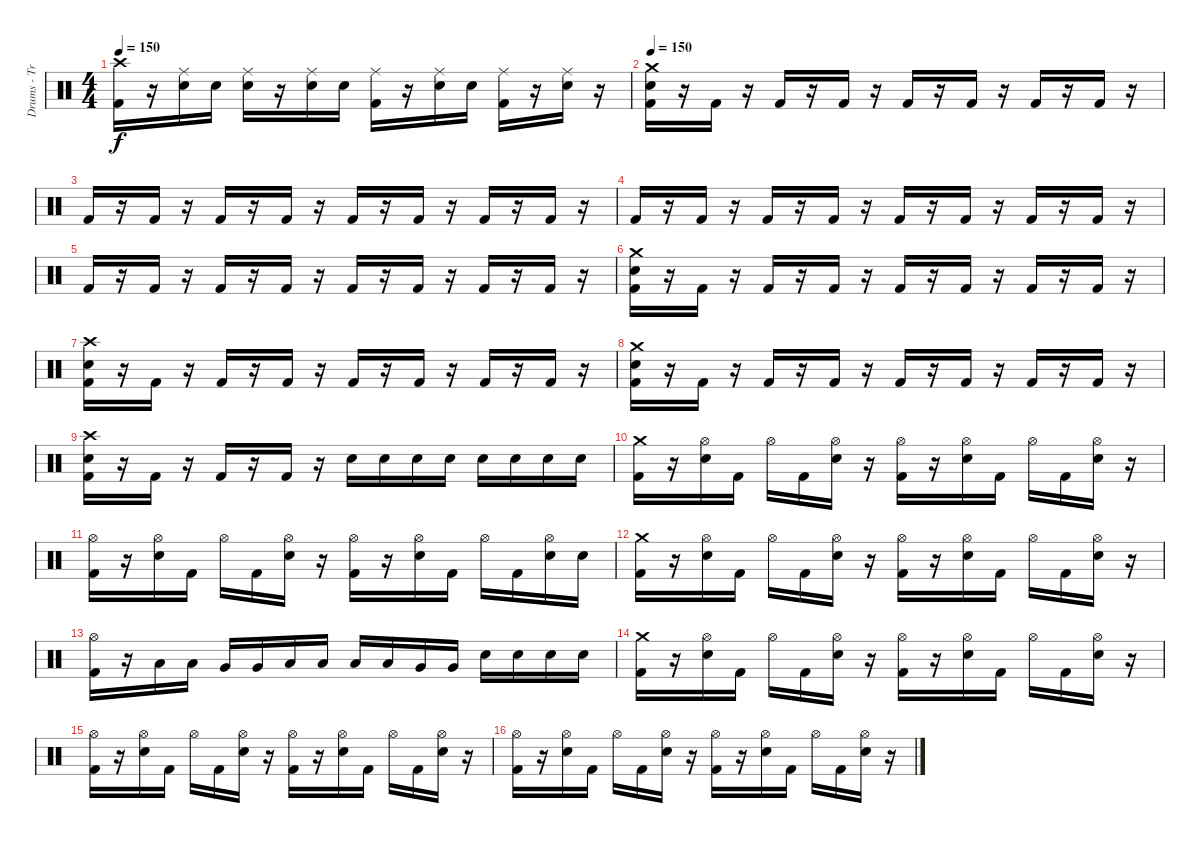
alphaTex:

\track ("Drums - Travis Barker" "Drums - Tr") {instrument percussion}
\staff {score}
\articulation defaults
\ts (4 4)
\tempo 150
\clef neutral
\ks c
("Crash high (hit)" "Kick (hit) 2").16{dy f} r.16 ("Ride (middle)" "Electric Snare (hit)").16 "Electric Snare (hit)".16 ("Hand Clap (hit)" "Ride (middle)").16 r.16 ("Ride (middle)" "Electric Snare (hit)").16 "Electric Snare (hit)".16 ("Ride (middle)" "Kick (hit) 2").16 r.16 ("Ride (middle)" "Electric Snare (hit)").16 "Electric Snare (hit)".16 ("Ride (middle)" "Kick (hit) 2").16 r.16 ("Ride (middle)" "Electric Snare (hit)").16 r.16 |
\tempo 150
("Crash medium (hit)" "Electric Snare (hit)" "Kick (hit) 2").16 r.16 "Kick (hit) 2".16 r.16 "Kick (hit) 2".16 r.16 "Kick (hit) 2".16 r.16 "Kick (hit) 2".16 r.16 "Kick (hit) 2".16 r.16 "Kick (hit) 2".16 r.16 "Kick (hit) 2".16 r.16 |
"Kick (hit) 2".16 r.16 "Kick (hit) 2".16 r.16 "Kick (hit) 2".16 r.16 "Kick (hit) 2".16 r.16 "Kick (hit) 2".16 r.16 "Kick (hit) 2".16 r.16 "Kick (hit) 2".16 r.16 "Kick (hit) 2".16 r.16 |
"Kick (hit) 2".16 r.16 "Kick (hit) 2".16 r.16 "Kick (hit) 2".16 r.16 "Kick (hit) 2".16 r.16 "Kick (hit) 2".16 r.16 "Kick (hit) 2".16 r.16 "Kick (hit) 2".16 r.16 "Kick (hit) 2".16 r.16 |
"Kick (hit) 2".16 r.16 "Kick (hit) 2".16 r.16 "Kick (hit) 2".16 r.16 "Kick (hit) 2".16 r.16 "Kick (hit) 2".16 r.16 "Kick (hit) 2".16 r.16 "Kick (hit) 2".16 r.16 "Kick (hit) 2".16 r.16 |
("Crash medium (hit)" "Electric Snare (hit)" "Kick (hit) 2").16 r.16 "Kick (hit) 2".16 r.16 "Kick (hit) 2".16 r.16 "Kick (hit) 2".16 r.16 "Kick (hit) 2".16 r.16 "Kick (hit) 2".16 r.16 "Kick (hit) 2".16 r.16 "Kick (hit) 2".16 r.16 |
("Crash high (hit)" "Electric Snare (hit)" "Kick (hit) 2").16 r.16 "Kick (hit) 2".16 r.16 "Kick (hit) 2".16 r.16 "Kick (hit) 2".16 r.16 "Kick (hit) 2".16 r.16 "Kick (hit) 2".16 r.16 "Kick (hit) 2".16 r.16 "Kick (hit) 2".16 r.16 |
("Crash medium (hit)" "Electric Snare (hit)" "Kick (hit) 2").16 r.16 "Kick (hit) 2".16 r.16 "Kick (hit) 2".16 r.16 "Kick (hit) 2".16 r.16 "Kick (hit) 2".16 r.16 "Kick (hit) 2".16 r.16 "Kick (hit) 2".16 r.16 "Kick (hit) 2".16 r.16 |
("Crash high (hit)" "Electric Snare (hit)" "Kick (hit) 2").16 r.16 "Kick (hit) 2".16 r.16 "Kick (hit) 2".16 r.16 "Kick (hit) 2".16 r.16 "Electric Snare (hit)".16 "Electric Snare (hit)".16 "Electric Snare (hit)".16 "Electric Snare (hit)".16 "Electric Snare (hit)".16 "Electric Snare (hit)".16 "Electric Snare (hit)".16 "Electric Snare (hit)".16 |
("Crash medium (hit)" "Kick (hit) 2").16 r.16 ("Hi-Hat (open)" "Electric Snare (hit)").16 "Kick (hit) 2".16 "Hi-Hat (open)".16 "Kick (hit) 2".16 ("Hi-Hat (open)" "Electric Snare (hit)").16 r.16 ("Hi-Hat (open)" "Kick (hit) 2").16 r.16 ("Hi-Hat (open)" "Electric Snare (hit)").16 "Kick (hit) 2".16 "Hi-Hat (open)".16 "Kick (hit) 2".16 ("Hi-Hat (open)" "Electric Snare (hit)").16 r.16 |
("Hi-Hat (open)" "Kick (hit) 2").16 r.16 ("Hi-Hat (open)" "Electric Snare (hit)").16 "Kick (hit) 2".16 "Hi-Hat (open)".16 "Kick (hit) 2".16 ("Hi-Hat (open)" "Electric Snare (hit)").16 r.16 ("Hi-Hat (open)" "Kick (hit) 2").16 r.16 ("Hi-Hat (open)" "Electric Snare (hit)").16 "Kick (hit) 2".16 "Hi-Hat (open)".16 "Kick (hit) 2".16 ("Hi-Hat (open)" "Electric Snare (hit)").16 "Electric Snare (hit)".16 |
("Crash medium (hit)" "Kick (hit) 2").16 r.16 ("Hi-Hat (open)" "Electric Snare (hit)").16 "Kick (hit) 2".16 "Hi-Hat (open)".16 "Kick (hit) 2".16 ("Hi-Hat (open)" "Electric Snare (hit)").16 r.16 ("Hi-Hat (open)" "Kick (hit) 2").16 r.16 ("Hi-Hat (open)" "Electric Snare (hit)").16 "Kick (hit) 2".16 "Hi-Hat (open)".16 "Kick (hit) 2".16 ("Hi-Hat (open)" "Electric Snare (hit)").16 r.16 |
("Hi-Hat (open)" "Kick (hit) 2").16 r.16 "Low Tom (hit)".16 "Low Tom (hit)".16 "Very Low Tom (hit)".16 "Very Low Tom (hit)".16 "Low Floor Tom (hit)".16 "Low Floor Tom (hit)".16 "Low Tom (hit)".16 "Low Tom (hit)".16 "Very Low Tom (hit)".16 "Very Low Tom (hit)".16 "Electric Snare (hit)".16 "Electric Snare (hit)".16 "Electric Snare (hit)".16 "Electric Snare (hit)".16 |
("Crash medium (hit)" "Kick (hit) 2").16 r.16 ("Hi-Hat (open)" "Electric Snare (hit)").16 "Kick (hit) 2".16 "Hi-Hat (open)".16 "Kick (hit) 2".16 ("Hi-Hat (open)" "Electric Snare (hit)").16 r.16 ("Hi-Hat (open)" "Kick (hit) 2").16 r.16 ("Hi-Hat (open)" "Electric Snare (hit)").16 "Kick (hit) 2".16 "Hi-Hat (open)".16 "Kick (hit) 2".16 ("Hi-Hat (open)" "Electric Snare (hit)").16 r.16 |
("Hi-Hat (open)" "Kick (hit) 2").16 r.16 ("Hi-Hat (open)" "Electric Snare (hit)").16 "Kick (hit) 2".16 "Hi-Hat (open)".16 "Kick (hit) 2".16 ("Hi-Hat (open)" "Electric Snare (hit)").16 r.16 ("Hi-Hat (open)" "Kick (hit) 2").16 r.16 ("Hi-Hat (open)" "Electric Snare (hit)").16 "Kick (hit) 2".16 "Hi-Hat (open)".16 "Kick (hit) 2".16 ("Hi-Hat (open)" "Electric Snare (hit)").16 r.16 |
("Hi-Hat (open)" "Kick (hit) 2").16 r.16 ("Hi-Hat (open)" "Electric Snare (hit)").16 "Kick (hit) 2".16 "Hi-Hat (open)".16 "Kick (hit) 2".16 ("Hi-Hat (open)" "Electric Snare (hit)").16 r.16 ("Hi-Hat (open)" "Kick (hit) 2").16 r.16 ("Hi-Hat (open)" "Electric Snare (hit)").16 "Kick (hit) 2".16 "Hi-Hat (open)".16 "Kick (hit) 2".16 ("Hi-Hat (open)" "Electric Snare (hit)").16 r.16
